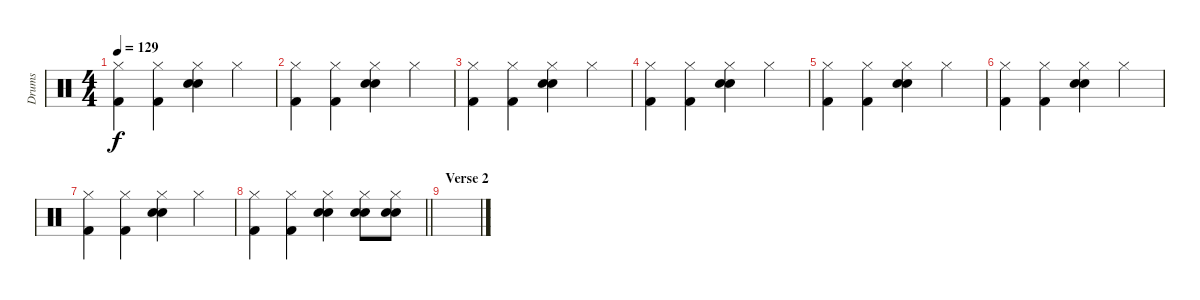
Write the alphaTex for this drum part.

\track ("Drums" "Drums") {instrument percussion}
\staff {score}
\articulation defaults
\ts (4 4)
\tempo 129
\clef neutral
\ks c
("Kick (hit) 2" "Hi-Hat (closed)").4{dy f} ("Kick (hit) 2" "Hi-Hat (closed)").4 ("Snare (hit) 2" "Electric Snare (hit)" "Hi-Hat (closed)").4 "Hi-Hat (closed)".4 |
("Kick (hit) 2" "Hi-Hat (closed)").4 ("Kick (hit) 2" "Hi-Hat (closed)").4 ("Snare (hit) 2" "Electric Snare (hit)" "Hi-Hat (closed)").4 "Hi-Hat (closed)".4 |
("Kick (hit) 2" "Hi-Hat (closed)").4 ("Kick (hit) 2" "Hi-Hat (closed)").4 ("Snare (hit) 2" "Electric Snare (hit)" "Hi-Hat (closed)").4 "Hi-Hat (closed)".4 |
("Kick (hit) 2" "Hi-Hat (closed)").4 ("Kick (hit) 2" "Hi-Hat (closed)").4 ("Snare (hit) 2" "Electric Snare (hit)" "Hi-Hat (closed)").4 "Hi-Hat (closed)".4 |
("Kick (hit) 2" "Hi-Hat (closed)").4 ("Kick (hit) 2" "Hi-Hat (closed)").4 ("Snare (hit) 2" "Electric Snare (hit)" "Hi-Hat (closed)").4 "Hi-Hat (closed)".4 |
("Kick (hit) 2" "Hi-Hat (closed)").4 ("Kick (hit) 2" "Hi-Hat (closed)").4 ("Snare (hit) 2" "Electric Snare (hit)" "Hi-Hat (closed)").4 "Hi-Hat (closed)".4 |
("Kick (hit) 2" "Hi-Hat (closed)").4 ("Kick (hit) 2" "Hi-Hat (closed)").4 ("Snare (hit) 2" "Electric Snare (hit)" "Hi-Hat (closed)").4 "Hi-Hat (closed)".4 |
\barLineRight lightlight
("Kick (hit) 2" "Hi-Hat (closed)").4 ("Kick (hit) 2" "Hi-Hat (closed)").4 ("Snare (hit) 2" "Electric Snare (hit)" "Hi-Hat (closed)").4 ("Electric Snare (hit)" "Snare (hit) 2" "Hi-Hat (closed)").8 ("Electric Snare (hit)" "Snare (hit) 2" "Hi-Hat (closed)").8 |
\section ("" "Verse 2")
